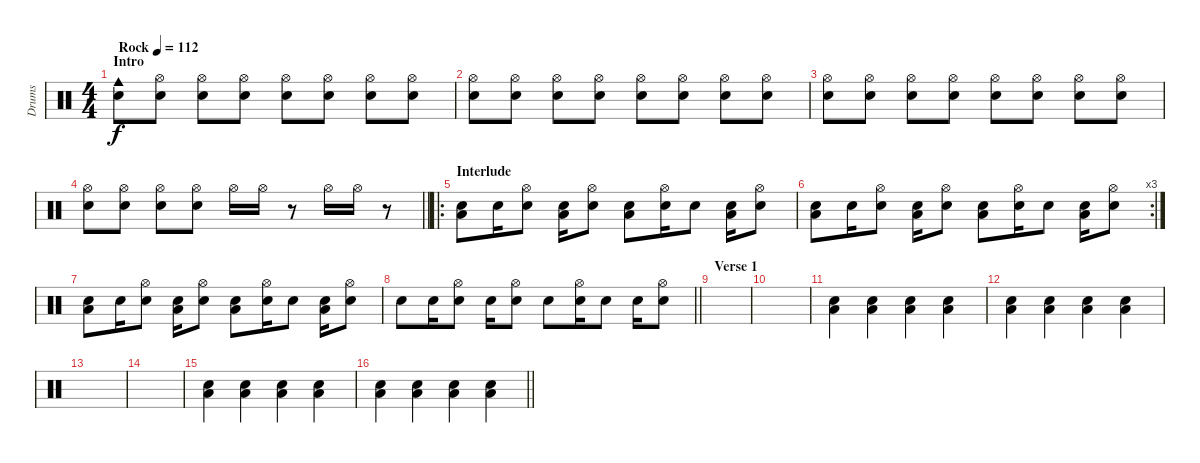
\track ("Drums" "Drums") {instrument percussion}
\staff {score}
\articulation defaults
\ts (4 4)
\section ("" "Intro")
\tempo (112 "Rock")
\clef neutral
\ks c
("Cowbell medium (hit)" "Electric Snare (hit)").8{dy f} ("Hi-Hat (open)" "Electric Snare (hit)").8 ("Hi-Hat (open)" "Electric Snare (hit)").8 ("Hi-Hat (open)" "Electric Snare (hit)").8 ("Hi-Hat (open)" "Electric Snare (hit)").8 ("Hi-Hat (open)" "Electric Snare (hit)").8 ("Hi-Hat (open)" "Electric Snare (hit)").8 ("Hi-Hat (open)" "Electric Snare (hit)").8 |
("Hi-Hat (open)" "Electric Snare (hit)").8 ("Hi-Hat (open)" "Electric Snare (hit)").8 ("Hi-Hat (open)" "Electric Snare (hit)").8 ("Hi-Hat (open)" "Electric Snare (hit)").8 ("Hi-Hat (open)" "Electric Snare (hit)").8 ("Hi-Hat (open)" "Electric Snare (hit)").8 ("Hi-Hat (open)" "Electric Snare (hit)").8 ("Hi-Hat (open)" "Electric Snare (hit)").8 |
("Hi-Hat (open)" "Electric Snare (hit)").8 ("Hi-Hat (open)" "Electric Snare (hit)").8 ("Hi-Hat (open)" "Electric Snare (hit)").8 ("Hi-Hat (open)" "Electric Snare (hit)").8 ("Hi-Hat (open)" "Electric Snare (hit)").8 ("Hi-Hat (open)" "Electric Snare (hit)").8 ("Hi-Hat (open)" "Electric Snare (hit)").8 ("Hi-Hat (open)" "Electric Snare (hit)").8 |
\barLineRight lightlight
("Hi-Hat (open)" "Electric Snare (hit)").8 ("Hi-Hat (open)" "Electric Snare (hit)").8 ("Hi-Hat (open)" "Electric Snare (hit)").8 ("Hi-Hat (open)" "Electric Snare (hit)").8 "Hi-Hat (open)".16 "Hi-Hat (open)".16 r.8 "Hi-Hat (open)".16 "Hi-Hat (open)".16 r.8 |
\ro
\section ("" "Interlude")
("Electric Snare (hit)" "Low Floor Tom (hit)").8 "Electric Snare (hit)".16 ("Hi-Hat (open)" "Electric Snare (hit)").8 ("Electric Snare (hit)" "Low Floor Tom (hit)").16 ("Hi-Hat (open)" "Electric Snare (hit)").8 ("Electric Snare (hit)" "Low Floor Tom (hit)").8 ("Hi-Hat (open)" "Electric Snare (hit)").16 "Electric Snare (hit)".8 ("Electric Snare (hit)" "Low Floor Tom (hit)").16 ("Hi-Hat (open)" "Electric Snare (hit)").8 |
\rc 3
("Electric Snare (hit)" "Low Floor Tom (hit)").8 "Electric Snare (hit)".16 ("Hi-Hat (open)" "Electric Snare (hit)").8 ("Electric Snare (hit)" "Low Floor Tom (hit)").16 ("Hi-Hat (open)" "Electric Snare (hit)").8 ("Electric Snare (hit)" "Low Floor Tom (hit)").8 ("Hi-Hat (open)" "Electric Snare (hit)").16 "Electric Snare (hit)".8 ("Electric Snare (hit)" "Low Floor Tom (hit)").16 ("Hi-Hat (open)" "Electric Snare (hit)").8 |
("Electric Snare (hit)" "Low Floor Tom (hit)").8 "Electric Snare (hit)".16 ("Hi-Hat (open)" "Electric Snare (hit)").8 ("Electric Snare (hit)" "Low Floor Tom (hit)").16 ("Hi-Hat (open)" "Electric Snare (hit)").8 ("Electric Snare (hit)" "Low Floor Tom (hit)").8 ("Hi-Hat (open)" "Electric Snare (hit)").16 "Electric Snare (hit)".8 ("Electric Snare (hit)" "Low Floor Tom (hit)").16 ("Hi-Hat (open)" "Electric Snare (hit)").8 |
\barLineRight lightlight "Electric Snare (hit)".8 "Electric Snare (hit)".16
("Hi-Hat (open)" "Electric Snare (hit)").8 "Electric Snare (hit)".16 ("Hi-Hat (open)" "Electric Snare (hit)").8 "Electric Snare (hit)".8 ("Hi-Hat (open)" "Electric Snare (hit)").16 "Electric Snare (hit)".8 "Electric Snare (hit)".16 ("Hi-Hat (open)" "Electric Snare (hit)").8 |
\section ("" "Verse 1")
|
|
("Electric Snare (hit)" "Low Floor Tom (hit)").4 ("Electric Snare (hit)" "Low Floor Tom (hit)").4 ("Electric Snare (hit)" "Low Floor Tom (hit)").4 ("Electric Snare (hit)" "Low Floor Tom (hit)").4 |
("Electric Snare (hit)" "Low Floor Tom (hit)").4 ("Electric Snare (hit)" "Low Floor Tom (hit)").4 ("Electric Snare (hit)" "Low Floor Tom (hit)").4 ("Electric Snare (hit)" "Low Floor Tom (hit)").4 |
|
|
("Electric Snare (hit)" "Low Floor Tom (hit)").4 ("Electric Snare (hit)" "Low Floor Tom (hit)").4 ("Electric Snare (hit)" "Low Floor Tom (hit)").4 ("Electric Snare (hit)" "Low Floor Tom (hit)").4 |
\barLineRight lightlight
("Electric Snare (hit)" "Low Floor Tom (hit)").4 ("Electric Snare (hit)" "Low Floor Tom (hit)").4 ("Electric Snare (hit)" "Low Floor Tom (hit)").4 ("Electric Snare (hit)" "Low Floor Tom (hit)").4
